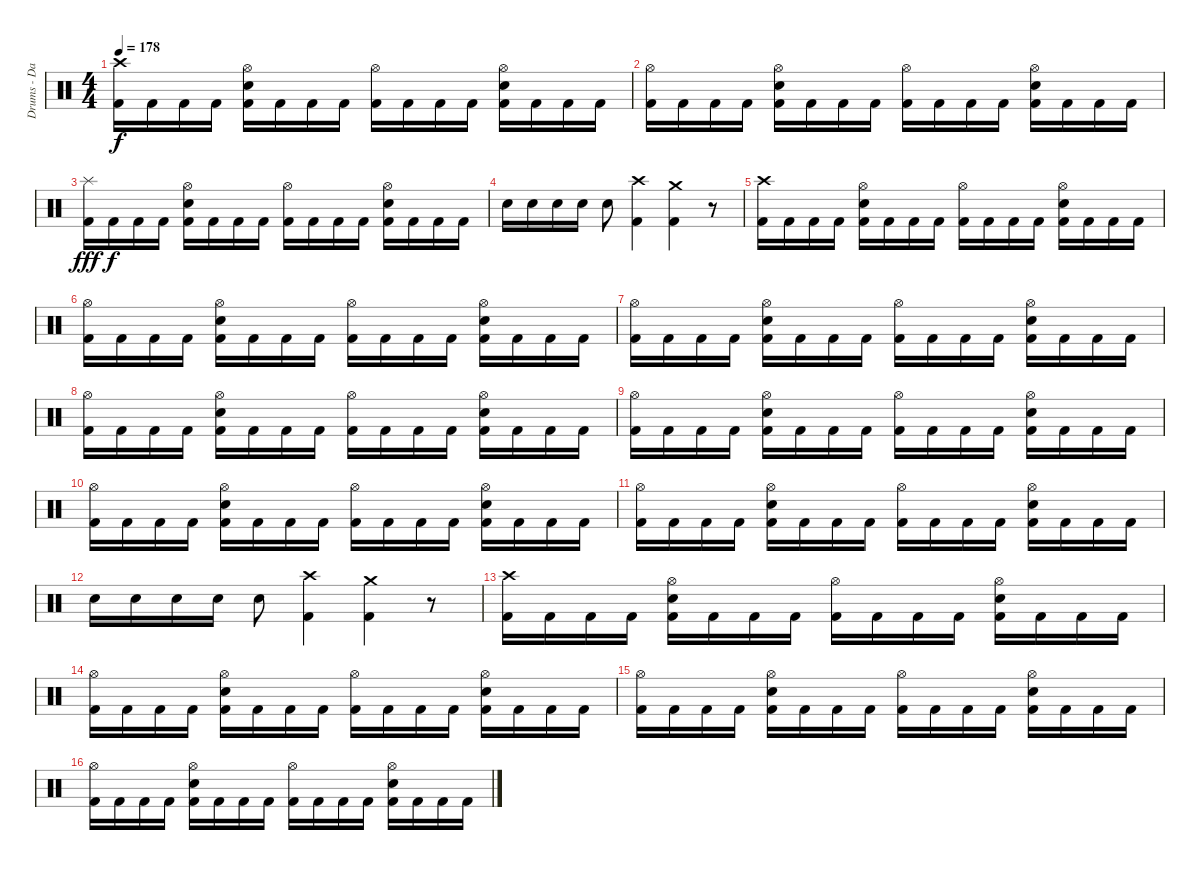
\track ("Drums - Daniel Zimmermann" "Drums - Da") {instrument percussion}
\staff {score}
\articulation defaults
\ts (4 4)
\tempo 178
\clef neutral
\ks c
("Kick (hit) 2" "Crash high (hit)").16{dy f} "Kick (hit) 2".16 "Kick (hit) 2".16 "Kick (hit) 2".16 ("Kick (hit) 2" "Electric Snare (hit)" "Hi-Hat (open)").16 "Kick (hit) 2".16 "Kick (hit) 2".16 "Kick (hit) 2".16 ("Kick (hit) 2" "Hi-Hat (open)").16 "Kick (hit) 2".16 "Kick (hit) 2".16 "Kick (hit) 2".16 ("Kick (hit) 2" "Electric Snare (hit)" "Hi-Hat (open)").16 "Kick (hit) 2".16 "Kick (hit) 2".16 "Kick (hit) 2".16 |
("Kick (hit) 2" "Hi-Hat (open)").16 "Kick (hit) 2".16 "Kick (hit) 2".16 "Kick (hit) 2".16 ("Kick (hit) 2" "Electric Snare (hit)" "Hi-Hat (open)").16 "Kick (hit) 2".16 "Kick (hit) 2".16 "Kick (hit) 2".16 ("Kick (hit) 2" "Hi-Hat (open)").16 "Kick (hit) 2".16 "Kick (hit) 2".16 "Kick (hit) 2".16 ("Kick (hit) 2" "Electric Snare (hit)" "Hi-Hat (open)").16 "Kick (hit) 2".16 "Kick (hit) 2".16 "Kick (hit) 2".16 |
("Kick (hit) 2" "Splash (hit)").16{dy fff} "Kick (hit) 2".16{dy f} "Kick (hit) 2".16 "Kick (hit) 2".16 ("Kick (hit) 2" "Electric Snare (hit)" "Hi-Hat (open)").16 "Kick (hit) 2".16 "Kick (hit) 2".16 "Kick (hit) 2".16 ("Kick (hit) 2" "Hi-Hat (open)").16 "Kick (hit) 2".16 "Kick (hit) 2".16 "Kick (hit) 2".16 ("Kick (hit) 2" "Electric Snare (hit)" "Hi-Hat (open)").16 "Kick (hit) 2".16 "Kick (hit) 2".16 "Kick (hit) 2".16 |
"Electric Snare (hit)".16 "Electric Snare (hit)".16 "Electric Snare (hit)".16 "Electric Snare (hit)".16 "Electric Snare (hit)".8 ("Kick (hit) 2" "Crash high (hit)").4 ("Kick (hit) 2" "Crash medium (hit)").4 r.8 |
("Kick (hit) 2" "Crash high (hit)").16 "Kick (hit) 2".16 "Kick (hit) 2".16 "Kick (hit) 2".16 ("Kick (hit) 2" "Electric Snare (hit)" "Hi-Hat (open)").16 "Kick (hit) 2".16 "Kick (hit) 2".16 "Kick (hit) 2".16 ("Kick (hit) 2" "Hi-Hat (open)").16 "Kick (hit) 2".16 "Kick (hit) 2".16 "Kick (hit) 2".16 ("Kick (hit) 2" "Electric Snare (hit)" "Hi-Hat (open)").16 "Kick (hit) 2".16 "Kick (hit) 2".16 "Kick (hit) 2".16 |
("Kick (hit) 2" "Hi-Hat (open)").16 "Kick (hit) 2".16 "Kick (hit) 2".16 "Kick (hit) 2".16 ("Kick (hit) 2" "Electric Snare (hit)" "Hi-Hat (open)").16 "Kick (hit) 2".16 "Kick (hit) 2".16 "Kick (hit) 2".16 ("Kick (hit) 2" "Hi-Hat (open)").16 "Kick (hit) 2".16 "Kick (hit) 2".16 "Kick (hit) 2".16 ("Kick (hit) 2" "Electric Snare (hit)" "Hi-Hat (open)").16 "Kick (hit) 2".16 "Kick (hit) 2".16 "Kick (hit) 2".16 |
("Kick (hit) 2" "Hi-Hat (open)").16 "Kick (hit) 2".16 "Kick (hit) 2".16 "Kick (hit) 2".16 ("Kick (hit) 2" "Electric Snare (hit)" "Hi-Hat (open)").16 "Kick (hit) 2".16 "Kick (hit) 2".16 "Kick (hit) 2".16 ("Kick (hit) 2" "Hi-Hat (open)").16 "Kick (hit) 2".16 "Kick (hit) 2".16 "Kick (hit) 2".16 ("Kick (hit) 2" "Electric Snare (hit)" "Hi-Hat (open)").16 "Kick (hit) 2".16 "Kick (hit) 2".16 "Kick (hit) 2".16 |
("Kick (hit) 2" "Hi-Hat (open)").16 "Kick (hit) 2".16 "Kick (hit) 2".16 "Kick (hit) 2".16 ("Kick (hit) 2" "Electric Snare (hit)" "Hi-Hat (open)").16 "Kick (hit) 2".16 "Kick (hit) 2".16 "Kick (hit) 2".16 ("Kick (hit) 2" "Hi-Hat (open)").16 "Kick (hit) 2".16 "Kick (hit) 2".16 "Kick (hit) 2".16 ("Kick (hit) 2" "Electric Snare (hit)" "Hi-Hat (open)").16 "Kick (hit) 2".16 "Kick (hit) 2".16 "Kick (hit) 2".16 |
("Kick (hit) 2" "Hi-Hat (open)").16 "Kick (hit) 2".16 "Kick (hit) 2".16 "Kick (hit) 2".16 ("Kick (hit) 2" "Electric Snare (hit)" "Hi-Hat (open)").16 "Kick (hit) 2".16 "Kick (hit) 2".16 "Kick (hit) 2".16 ("Kick (hit) 2" "Hi-Hat (open)").16 "Kick (hit) 2".16 "Kick (hit) 2".16 "Kick (hit) 2".16 ("Kick (hit) 2" "Electric Snare (hit)" "Hi-Hat (open)").16 "Kick (hit) 2".16 "Kick (hit) 2".16 "Kick (hit) 2".16 |
("Kick (hit) 2" "Hi-Hat (open)").16 "Kick (hit) 2".16 "Kick (hit) 2".16 "Kick (hit) 2".16 ("Kick (hit) 2" "Electric Snare (hit)" "Hi-Hat (open)").16 "Kick (hit) 2".16 "Kick (hit) 2".16 "Kick (hit) 2".16 ("Kick (hit) 2" "Hi-Hat (open)").16 "Kick (hit) 2".16 "Kick (hit) 2".16 "Kick (hit) 2".16 ("Kick (hit) 2" "Electric Snare (hit)" "Hi-Hat (open)").16 "Kick (hit) 2".16 "Kick (hit) 2".16 "Kick (hit) 2".16 |
("Kick (hit) 2" "Hi-Hat (open)").16 "Kick (hit) 2".16 "Kick (hit) 2".16 "Kick (hit) 2".16 ("Kick (hit) 2" "Electric Snare (hit)" "Hi-Hat (open)").16 "Kick (hit) 2".16 "Kick (hit) 2".16 "Kick (hit) 2".16 ("Kick (hit) 2" "Hi-Hat (open)").16 "Kick (hit) 2".16 "Kick (hit) 2".16 "Kick (hit) 2".16 ("Kick (hit) 2" "Electric Snare (hit)" "Hi-Hat (open)").16 "Kick (hit) 2".16 "Kick (hit) 2".16 "Kick (hit) 2".16 |
"Electric Snare (hit)".16 "Electric Snare (hit)".16 "Electric Snare (hit)".16 "Electric Snare (hit)".16 "Electric Snare (hit)".8 ("Kick (hit) 2" "Crash high (hit)").4 ("Kick (hit) 2" "Crash medium (hit)").4 r.8 |
("Kick (hit) 2" "Crash high (hit)").16 "Kick (hit) 2".16 "Kick (hit) 2".16 "Kick (hit) 2".16 ("Kick (hit) 2" "Electric Snare (hit)" "Hi-Hat (open)").16 "Kick (hit) 2".16 "Kick (hit) 2".16 "Kick (hit) 2".16 ("Kick (hit) 2" "Hi-Hat (open)").16 "Kick (hit) 2".16 "Kick (hit) 2".16 "Kick (hit) 2".16 ("Kick (hit) 2" "Electric Snare (hit)" "Hi-Hat (open)").16 "Kick (hit) 2".16 "Kick (hit) 2".16 "Kick (hit) 2".16 |
("Kick (hit) 2" "Hi-Hat (open)").16 "Kick (hit) 2".16 "Kick (hit) 2".16 "Kick (hit) 2".16 ("Kick (hit) 2" "Electric Snare (hit)" "Hi-Hat (open)").16 "Kick (hit) 2".16 "Kick (hit) 2".16 "Kick (hit) 2".16 ("Kick (hit) 2" "Hi-Hat (open)").16 "Kick (hit) 2".16 "Kick (hit) 2".16 "Kick (hit) 2".16 ("Kick (hit) 2" "Electric Snare (hit)" "Hi-Hat (open)").16 "Kick (hit) 2".16 "Kick (hit) 2".16 "Kick (hit) 2".16 |
("Kick (hit) 2" "Hi-Hat (open)").16 "Kick (hit) 2".16 "Kick (hit) 2".16 "Kick (hit) 2".16 ("Kick (hit) 2" "Electric Snare (hit)" "Hi-Hat (open)").16 "Kick (hit) 2".16 "Kick (hit) 2".16 "Kick (hit) 2".16 ("Kick (hit) 2" "Hi-Hat (open)").16 "Kick (hit) 2".16 "Kick (hit) 2".16 "Kick (hit) 2".16 ("Kick (hit) 2" "Electric Snare (hit)" "Hi-Hat (open)").16 "Kick (hit) 2".16 "Kick (hit) 2".16 "Kick (hit) 2".16 |
("Kick (hit) 2" "Hi-Hat (open)").16 "Kick (hit) 2".16 "Kick (hit) 2".16 "Kick (hit) 2".16 ("Kick (hit) 2" "Electric Snare (hit)" "Hi-Hat (open)").16 "Kick (hit) 2".16 "Kick (hit) 2".16 "Kick (hit) 2".16 ("Kick (hit) 2" "Hi-Hat (open)").16 "Kick (hit) 2".16 "Kick (hit) 2".16 "Kick (hit) 2".16 ("Kick (hit) 2" "Electric Snare (hit)" "Hi-Hat (open)").16 "Kick (hit) 2".16 "Kick (hit) 2".16 "Kick (hit) 2".16
